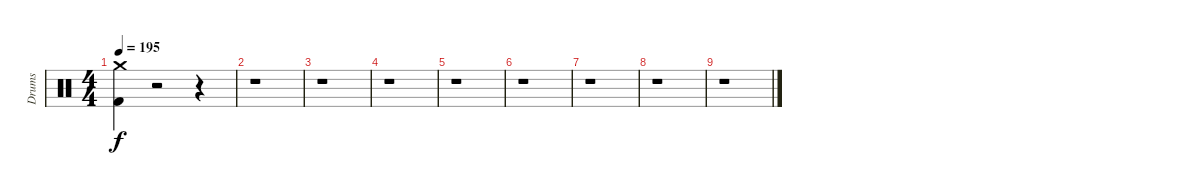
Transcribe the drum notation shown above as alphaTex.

\track ("Drums" "Drums") {instrument percussion}
\staff {score}
\articulation defaults
\ts (4 4)
\tempo 195
\clef neutral
\ks c
("Crash medium (hit)" "Kick (hit) 2").4{dy f} r.2 r.4 |
r.1 |
r.1 |
r.1 |
r.1 |
r.1 |
r.1 |
r.1 |
r.1
